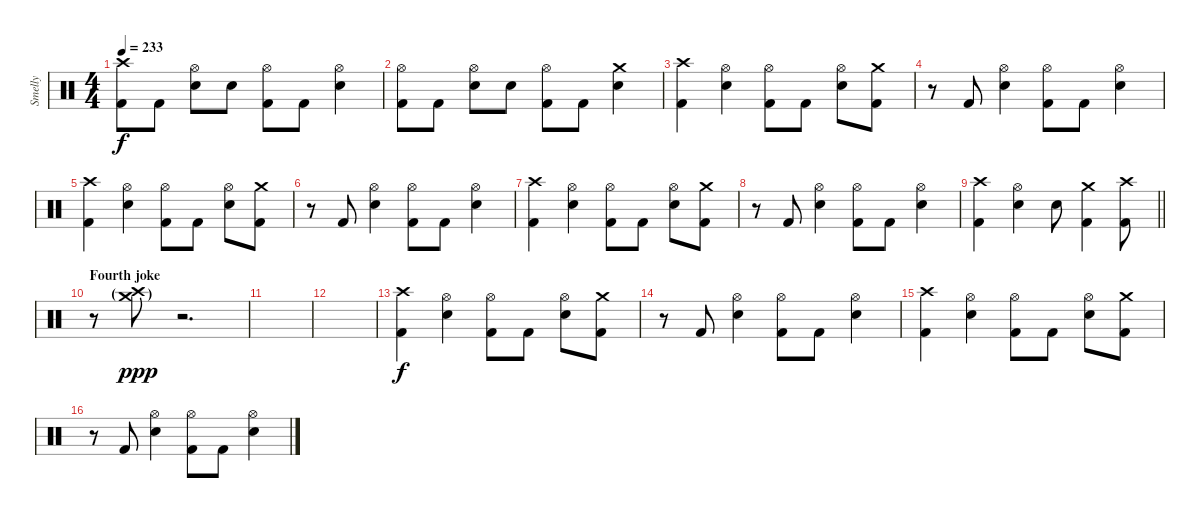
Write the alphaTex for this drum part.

\track ("Smelly" "Smelly") {instrument percussion}
\staff {score}
\articulation defaults
\ts (4 4)
\tempo 233
\clef neutral
\ks c
("Crash high (hit)" "Kick (hit) 2").8{dy f} "Kick (hit) 2".8 ("Hi-Hat (open)" "Electric Snare (hit)").8 "Electric Snare (hit)".8 ("Hi-Hat (open)" "Kick (hit) 2").8 "Kick (hit) 2".8 ("Hi-Hat (open)" "Electric Snare (hit)").4 |
("Hi-Hat (open)" "Kick (hit) 2").8 "Kick (hit) 2".8 ("Hi-Hat (open)" "Electric Snare (hit)").8 "Electric Snare (hit)".8 ("Hi-Hat (open)" "Kick (hit) 2").8 "Kick (hit) 2".8 ("Crash medium (hit)" "Electric Snare (hit)").4 |
("Crash high (hit)" "Kick (hit) 2").4 ("Hi-Hat (open)" "Electric Snare (hit)").4 ("Hi-Hat (open)" "Kick (hit) 2").8 "Kick (hit) 2".8 ("Hi-Hat (open)" "Electric Snare (hit)").8 ("Crash medium (hit)" "Kick (hit) 2").8 |
r.8 "Kick (hit) 2".8 ("Hi-Hat (open)" "Electric Snare (hit)").4 ("Hi-Hat (open)" "Kick (hit) 2").8 "Kick (hit) 2".8 ("Hi-Hat (open)" "Electric Snare (hit)").4 |
("Crash high (hit)" "Kick (hit) 2").4 ("Hi-Hat (open)" "Electric Snare (hit)").4 ("Hi-Hat (open)" "Kick (hit) 2").8 "Kick (hit) 2".8 ("Hi-Hat (open)" "Electric Snare (hit)").8 ("Crash medium (hit)" "Kick (hit) 2").8 |
r.8 "Kick (hit) 2".8 ("Hi-Hat (open)" "Electric Snare (hit)").4 ("Hi-Hat (open)" "Kick (hit) 2").8 "Kick (hit) 2".8 ("Hi-Hat (open)" "Electric Snare (hit)").4 |
("Crash high (hit)" "Kick (hit) 2").4 ("Hi-Hat (open)" "Electric Snare (hit)").4 ("Hi-Hat (open)" "Kick (hit) 2").8 "Kick (hit) 2".8 ("Hi-Hat (open)" "Electric Snare (hit)").8 ("Crash medium (hit)" "Kick (hit) 2").8 |
r.8 "Kick (hit) 2".8 ("Hi-Hat (open)" "Electric Snare (hit)").4 ("Hi-Hat (open)" "Kick (hit) 2").8 "Kick (hit) 2".8 ("Hi-Hat (open)" "Electric Snare (hit)").4 |
\barLineRight lightlight
("Crash high (hit)" "Kick (hit) 2").4 ("Hi-Hat (open)" "Electric Snare (hit)").4 "Electric Snare (hit)".8 ("Crash medium (hit)" "Kick (hit) 2").4 ("Crash high (hit)" "Kick (hit) 2").8 |
\section ("" "Fourth joke")
r.8 ("Crash high (hit)"{g} "Crash medium (hit)"{g}).8{dy ppp} r.2{d} |
|
|
("Crash high (hit)" "Kick (hit) 2").4{dy f} ("Hi-Hat (open)" "Electric Snare (hit)").4 ("Hi-Hat (open)" "Kick (hit) 2").8 "Kick (hit) 2".8 ("Hi-Hat (open)" "Electric Snare (hit)").8 ("Crash medium (hit)" "Kick (hit) 2").8 |
r.8 "Kick (hit) 2".8 ("Hi-Hat (open)" "Electric Snare (hit)").4 ("Hi-Hat (open)" "Kick (hit) 2").8 "Kick (hit) 2".8 ("Hi-Hat (open)" "Electric Snare (hit)").4 |
("Crash high (hit)" "Kick (hit) 2").4 ("Hi-Hat (open)" "Electric Snare (hit)").4 ("Hi-Hat (open)" "Kick (hit) 2").8 "Kick (hit) 2".8 ("Hi-Hat (open)" "Electric Snare (hit)").8 ("Crash medium (hit)" "Kick (hit) 2").8 |
r.8 "Kick (hit) 2".8 ("Hi-Hat (open)" "Electric Snare (hit)").4 ("Hi-Hat (open)" "Kick (hit) 2").8 "Kick (hit) 2".8 ("Hi-Hat (open)" "Electric Snare (hit)").4
